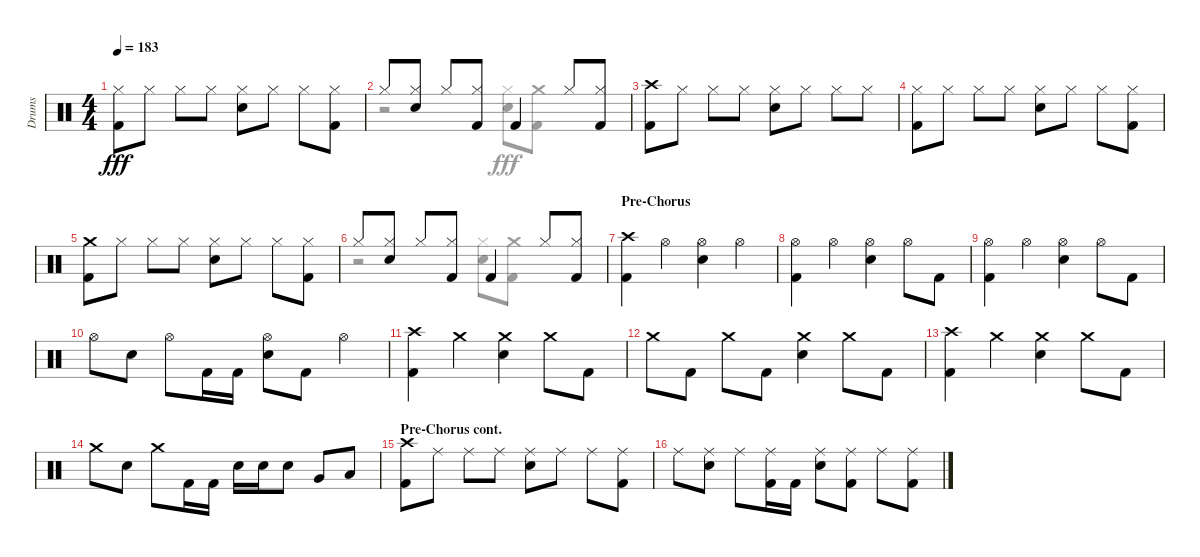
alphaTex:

\track ("Drums" "Drums") {instrument percussion}
\staff {score}
\articulation defaults
\voice
\ts (4 4)
\tempo 183
\clef neutral
\ks aminor
("Hi-Hat (closed)" "Kick (hit) 2").8{dy fff} "Hi-Hat (closed)".8 "Hi-Hat (closed)".8 "Hi-Hat (closed)".8 ("Snare (hit) 2" "Hi-Hat (closed)").8 "Hi-Hat (closed)".8 "Hi-Hat (closed)".8 ("Kick (hit) 2" "Hi-Hat (closed)").8 |
"Hi-Hat (closed)".8 ("Snare (hit) 2" "Hi-Hat (closed)").8 "Hi-Hat (closed)".8 ("Hi-Hat (closed)" "Kick (hit) 2").8 "Kick (hit) 2".4 "Hi-Hat (closed)".8 ("Kick (hit) 2" "Hi-Hat (closed)").8 |
("Crash high (hit)" "Kick (hit) 2").8 "Hi-Hat (closed)".8 "Hi-Hat (closed)".8 "Hi-Hat (closed)".8 ("Snare (hit) 2" "Hi-Hat (closed)").8 "Hi-Hat (closed)".8 "Hi-Hat (closed)".8 "Hi-Hat (closed)".8 |
("Kick (hit) 2" "Hi-Hat (closed)").8 "Hi-Hat (closed)".8 "Hi-Hat (closed)".8 "Hi-Hat (closed)".8 ("Snare (hit) 2" "Hi-Hat (closed)").8 "Hi-Hat (closed)".8 "Hi-Hat (closed)".8 ("Hi-Hat (closed)" "Kick (hit) 2").8 |
("Kick (hit) 2" "Crash medium (hit)").8 "Hi-Hat (closed)".8 "Hi-Hat (closed)".8 "Hi-Hat (closed)".8 ("Hi-Hat (closed)" "Snare (hit) 2").8 "Hi-Hat (closed)".8 "Hi-Hat (closed)".8 ("Hi-Hat (closed)" "Kick (hit) 2").8 |
"Hi-Hat (closed)".8 ("Hi-Hat (closed)" "Snare (hit) 2").8 "Hi-Hat (closed)".8 ("Hi-Hat (closed)" "Kick (hit) 2").8 "Kick (hit) 2".4 "Hi-Hat (closed)".8 ("Hi-Hat (closed)" "Kick (hit) 2").8 |
\section ("" "Pre-Chorus")
("Kick (hit) 2" "Crash high (hit)").4 "Hi-Hat (open)".4 ("Hi-Hat (open)" "Snare (hit) 2").4 "Hi-Hat (open)".4 |
("Hi-Hat (open)" "Kick (hit) 2").4 "Hi-Hat (open)".4 ("Snare (hit) 2" "Hi-Hat (open)").4 "Hi-Hat (open)".8 "Kick (hit) 2".8 |
("Kick (hit) 2" "Hi-Hat (open)").4 "Hi-Hat (open)".4 ("Hi-Hat (open)" "Snare (hit) 2").4 "Hi-Hat (open)".8 "Kick (hit) 2".8 |
"Hi-Hat (open)".8 "Snare (hit) 2".8 "Hi-Hat (open)".8 "Kick (hit) 2".16 "Kick (hit) 2".16 ("Hi-Hat (open)" "Snare (hit) 2").8 "Kick (hit) 2".8 "Hi-Hat (open)".4 |
("Kick (hit) 2" "Crash high (hit)").4 "Crash medium (hit)".4 ("Crash medium (hit)" "Snare (hit) 2").4 "Crash medium (hit)".8 "Kick (hit) 2".8 |
"Crash medium (hit)".8 "Kick (hit) 2".8 "Crash medium (hit)".8 "Kick (hit) 2".8 ("Crash medium (hit)" "Snare (hit) 2").4 "Crash medium (hit)".8 "Kick (hit) 2".8 |
("Kick (hit) 2" "Crash high (hit)").4 "Crash medium (hit)".4 ("Crash medium (hit)" "Snare (hit) 2").4 "Crash medium (hit)".8 "Kick (hit) 2".8 |
"Crash medium (hit)".8 "Snare (hit) 2".8 "Crash medium (hit)".8 "Kick (hit) 2".16 "Kick (hit) 2".16 "Snare (hit) 2".16 "Snare (hit) 2".16 "Snare (hit) 2".8 "Very Low Tom (hit)".8 "Low Floor Tom (hit)".8 |
\section ("" "Pre-Chorus cont.")
("Crash high (hit)" "Kick (hit) 2").8 "Ride (middle)".8 "Ride (middle)".8 "Ride (middle)".8 ("Ride (middle)" "Snare (hit) 2").8 "Ride (middle)".8 "Ride (middle)".8 ("Ride (middle)" "Kick (hit) 2").8 |
"Ride (middle)".8 ("Ride (middle)" "Snare (hit) 2").8 "Ride (middle)".8 ("Kick (hit) 2" "Ride (middle)").16 "Kick (hit) 2".16 ("Snare (hit) 2" "Ride (middle)").8 ("Ride (middle)" "Kick (hit) 2").8 "Ride (middle)".8 ("Ride (middle)" "Kick (hit) 2").8
\voice
\clef neutral
\ottava regular
\simile none
\ks aminor
|
r.2 ("Hi-Hat (closed)" "Snare (hit) 2").8 ("Kick (hit) 2" "Crash medium (hit)").8 |
|
|
|
r.2 ("Hi-Hat (closed)" "Snare (hit) 2").8 ("Kick (hit) 2" "Crash medium (hit)").8 |
|
|
|
|
|
|
|
|
|
